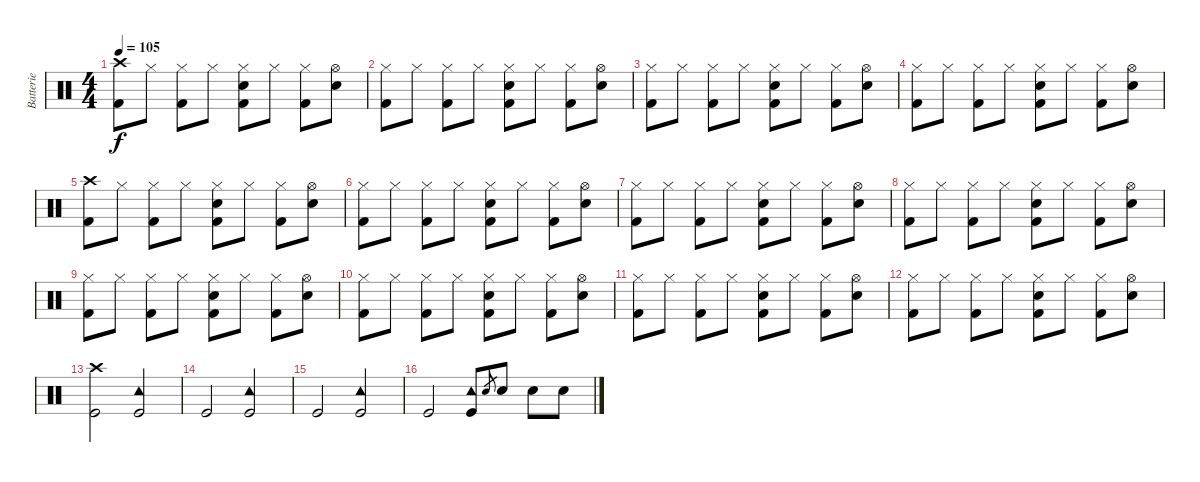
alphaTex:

\track ("Batterie" "Batterie") {instrument percussion}
\staff {score}
\articulation defaults
\ts (4 4)
\tempo 105
\clef neutral
\ks c
("Crash high (hit)" "Kick (hit) 2").8{dy f} "Hi-Hat (closed)".8 ("Hi-Hat (closed)" "Kick (hit) 2").8 "Hi-Hat (closed)".8 ("Hi-Hat (closed)" "Snare (hit) 2" "Kick (hit) 2").8 "Hi-Hat (closed)".8 ("Hi-Hat (closed)" "Kick (hit) 2").8 ("Hi-Hat (open)" "Snare (hit) 2").8 |
("Hi-Hat (closed)" "Kick (hit) 2").8 "Hi-Hat (closed)".8 ("Hi-Hat (closed)" "Kick (hit) 2").8 "Hi-Hat (closed)".8 ("Hi-Hat (closed)" "Snare (hit) 2" "Kick (hit) 2").8 "Hi-Hat (closed)".8 ("Hi-Hat (closed)" "Kick (hit) 2").8 ("Hi-Hat (open)" "Snare (hit) 2").8 |
("Hi-Hat (closed)" "Kick (hit) 2").8 "Hi-Hat (closed)".8 ("Hi-Hat (closed)" "Kick (hit) 2").8 "Hi-Hat (closed)".8 ("Hi-Hat (closed)" "Snare (hit) 2" "Kick (hit) 2").8 "Hi-Hat (closed)".8 ("Hi-Hat (closed)" "Kick (hit) 2").8 ("Hi-Hat (open)" "Snare (hit) 2").8 |
("Hi-Hat (closed)" "Kick (hit) 2").8 "Hi-Hat (closed)".8 ("Hi-Hat (closed)" "Kick (hit) 2").8 "Hi-Hat (closed)".8 ("Hi-Hat (closed)" "Snare (hit) 2" "Kick (hit) 2").8 "Hi-Hat (closed)".8 ("Hi-Hat (closed)" "Kick (hit) 2").8 ("Hi-Hat (open)" "Snare (hit) 2").8 |
("Crash high (hit)" "Kick (hit) 2").8 "Hi-Hat (closed)".8 ("Hi-Hat (closed)" "Kick (hit) 2").8 "Hi-Hat (closed)".8 ("Hi-Hat (closed)" "Snare (hit) 2" "Kick (hit) 2").8 "Hi-Hat (closed)".8 ("Hi-Hat (closed)" "Kick (hit) 2").8 ("Hi-Hat (open)" "Snare (hit) 2").8 |
("Hi-Hat (closed)" "Kick (hit) 2").8 "Hi-Hat (closed)".8 ("Hi-Hat (closed)" "Kick (hit) 2").8 "Hi-Hat (closed)".8 ("Hi-Hat (closed)" "Snare (hit) 2" "Kick (hit) 2").8 "Hi-Hat (closed)".8 ("Hi-Hat (closed)" "Kick (hit) 2").8 ("Hi-Hat (open)" "Snare (hit) 2").8 |
("Hi-Hat (closed)" "Kick (hit) 2").8 "Hi-Hat (closed)".8 ("Hi-Hat (closed)" "Kick (hit) 2").8 "Hi-Hat (closed)".8 ("Hi-Hat (closed)" "Snare (hit) 2" "Kick (hit) 2").8 "Hi-Hat (closed)".8 ("Hi-Hat (closed)" "Kick (hit) 2").8 ("Hi-Hat (open)" "Snare (hit) 2").8 |
("Hi-Hat (closed)" "Kick (hit) 2").8 "Hi-Hat (closed)".8 ("Hi-Hat (closed)" "Kick (hit) 2").8 "Hi-Hat (closed)".8 ("Hi-Hat (closed)" "Snare (hit) 2" "Kick (hit) 2").8 "Hi-Hat (closed)".8 ("Hi-Hat (closed)" "Kick (hit) 2").8 ("Hi-Hat (open)" "Snare (hit) 2").8 |
("Hi-Hat (closed)" "Kick (hit) 2").8 "Hi-Hat (closed)".8 ("Hi-Hat (closed)" "Kick (hit) 2").8 "Hi-Hat (closed)".8 ("Hi-Hat (closed)" "Snare (hit) 2" "Kick (hit) 2").8 "Hi-Hat (closed)".8 ("Hi-Hat (closed)" "Kick (hit) 2").8 ("Hi-Hat (open)" "Snare (hit) 2").8 |
("Hi-Hat (closed)" "Kick (hit) 2").8 "Hi-Hat (closed)".8 ("Hi-Hat (closed)" "Kick (hit) 2").8 "Hi-Hat (closed)".8 ("Hi-Hat (closed)" "Snare (hit) 2" "Kick (hit) 2").8 "Hi-Hat (closed)".8 ("Hi-Hat (closed)" "Kick (hit) 2").8 ("Hi-Hat (open)" "Snare (hit) 2").8 |
("Hi-Hat (closed)" "Kick (hit) 2").8 "Hi-Hat (closed)".8 ("Hi-Hat (closed)" "Kick (hit) 2").8 "Hi-Hat (closed)".8 ("Hi-Hat (closed)" "Snare (hit) 2" "Kick (hit) 2").8 "Hi-Hat (closed)".8 ("Hi-Hat (closed)" "Kick (hit) 2").8 ("Hi-Hat (open)" "Snare (hit) 2").8 |
("Hi-Hat (closed)" "Kick (hit) 2").8 "Hi-Hat (closed)".8 ("Hi-Hat (closed)" "Kick (hit) 2").8 "Hi-Hat (closed)".8 ("Hi-Hat (closed)" "Snare (hit) 2" "Kick (hit) 2").8 "Hi-Hat (closed)".8 ("Hi-Hat (closed)" "Kick (hit) 2").8 ("Hi-Hat (open)" "Snare (hit) 2").8 |
("Crash high (hit)" "Kick (hit)").2 ("Tambourine (hit)" "Kick (hit)").2 |
"Kick (hit)".2 ("Tambourine (hit)" "Kick (hit)").2 |
"Kick (hit)".2 ("Tambourine (hit)" "Kick (hit)").2 |
"Kick (hit)".2 ("Tambourine (hit)" "Kick (hit)").8 "Snare (hit) 2".8{gr} "Snare (hit) 2".8 "Snare (hit) 2".8 "Snare (hit) 2".8
